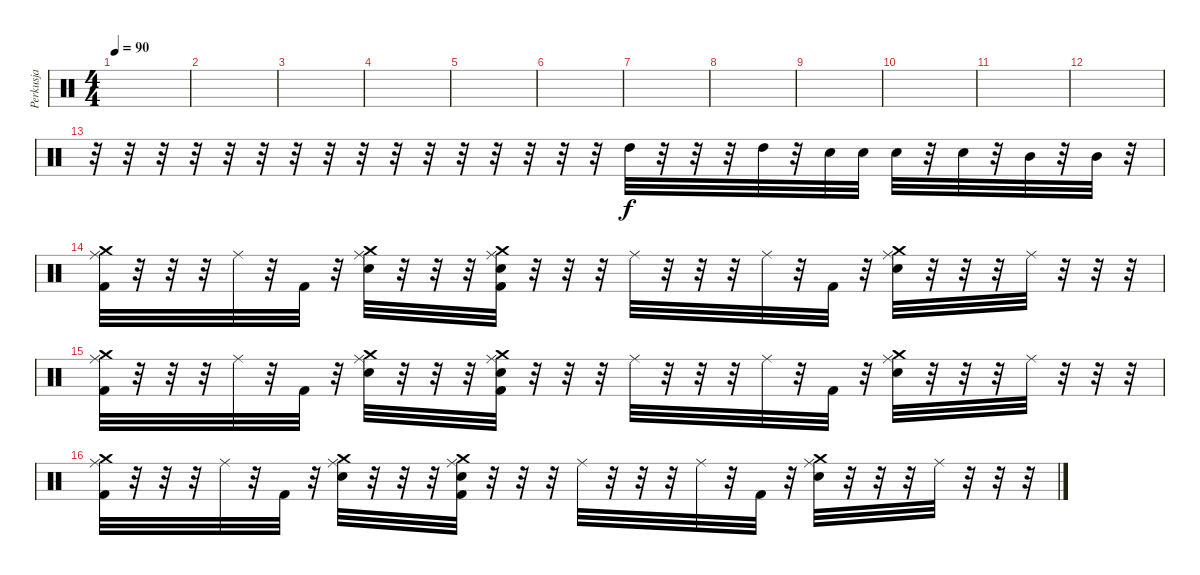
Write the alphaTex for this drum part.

\track ("Perkusja" "Perkusja") {instrument percussion}
\staff {score}
\articulation defaults
\ts (4 4)
\tempo 90
\clef neutral
\ks c
|
|
|
|
|
|
|
|
|
|
|
|
r.32 r.32 r.32 r.32 r.32 r.32 r.32 r.32 r.32 r.32 r.32 r.32 r.32 r.32 r.32 r.32 "High Tom (hit)".32 r.32 r.32 r.32 "High Tom (hit)".32 r.32 "Snare (hit) 2".32 "Snare (hit) 2".32 "Snare (hit) 2".32 r.32 "Snare (hit) 2".32 r.32 "Mid Tom (hit)".32 r.32 "Mid Tom (hit)".32 r.32 |
("Crash medium (hit)" "Ride (middle)" "Kick (hit) 2").32 r.32 r.32 r.32 "Ride (middle)".32 r.32 "Kick (hit) 2".32 r.32 ("Crash medium (hit)" "Ride (middle)" "Electric Snare (hit)").32 r.32 r.32 r.32 ("Crash medium (hit)" "Ride (middle)" "Electric Snare (hit)" "Kick (hit) 2").32 r.32 r.32 r.32 "Ride (middle)".32 r.32 r.32 r.32 "Ride (middle)".32 r.32 "Kick (hit) 2".32 r.32 ("Crash medium (hit)" "Ride (middle)" "Electric Snare (hit)").32 r.32 r.32 r.32 "Ride (middle)".32 r.32 r.32 r.32 |
("Crash medium (hit)" "Ride (middle)" "Kick (hit) 2").32 r.32 r.32 r.32 "Ride (middle)".32 r.32 "Kick (hit) 2".32 r.32 ("Crash medium (hit)" "Ride (middle)" "Electric Snare (hit)").32 r.32 r.32 r.32 ("Crash medium (hit)" "Ride (middle)" "Electric Snare (hit)" "Kick (hit) 2").32 r.32 r.32 r.32 "Ride (middle)".32 r.32 r.32 r.32 "Ride (middle)".32 r.32 "Kick (hit) 2".32 r.32 ("Crash medium (hit)" "Ride (middle)" "Electric Snare (hit)").32 r.32 r.32 r.32 "Ride (middle)".32 r.32 r.32 r.32 |
("Crash medium (hit)" "Ride (middle)" "Kick (hit) 2").32 r.32 r.32 r.32 "Ride (middle)".32 r.32 "Kick (hit) 2".32 r.32 ("Crash medium (hit)" "Ride (middle)" "Electric Snare (hit)").32 r.32 r.32 r.32 ("Crash medium (hit)" "Ride (middle)" "Electric Snare (hit)" "Kick (hit) 2").32 r.32 r.32 r.32 "Ride (middle)".32 r.32 r.32 r.32 "Ride (middle)".32 r.32 "Kick (hit) 2".32 r.32 ("Crash medium (hit)" "Ride (middle)" "Electric Snare (hit)").32 r.32 r.32 r.32 "Ride (middle)".32 r.32 r.32 r.32
